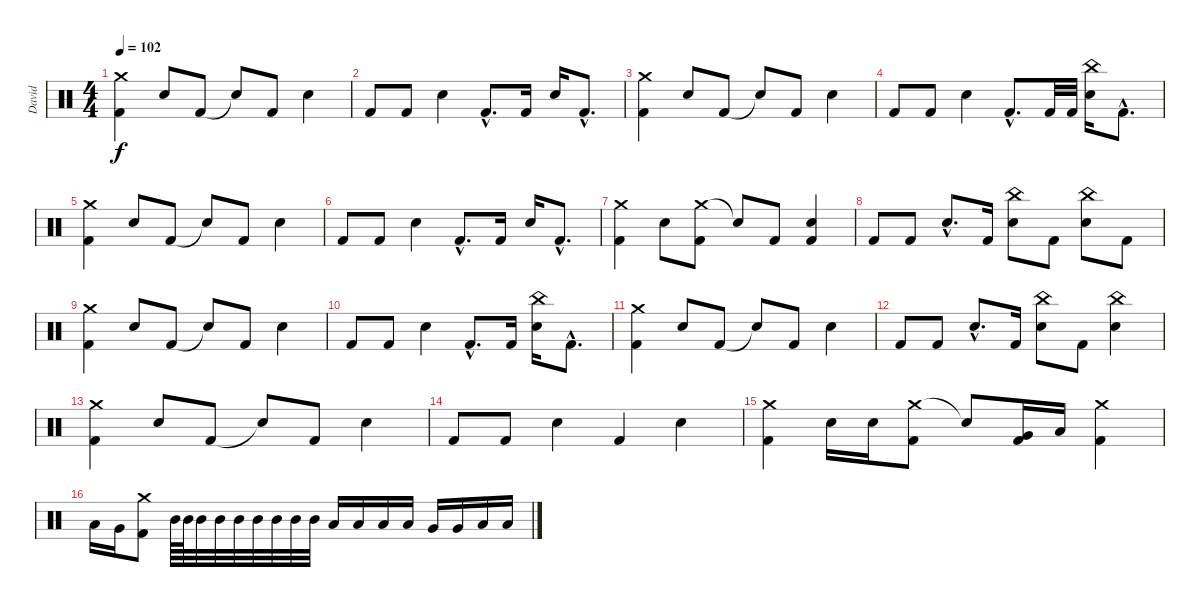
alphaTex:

\track ("David" "David") {instrument percussion}
\staff {score}
\articulation defaults
\ts (4 4)
\tempo 102
\clef neutral
\ks c
("Crash medium (hit)" "Kick (hit) 2").4{dy f} "Snare (hit) 2".8 "Kick (hit) 2".8 "Snare (hit)"{t}.8 "Kick (hit) 2".8 "Snare (hit) 2".4 |
"Kick (hit) 2".8 "Kick (hit) 2".8 "Snare (hit) 2".4 "Kick (hit) 2"{hac}.8{d} "Kick (hit) 2".16 "Snare (hit) 2".16 "Kick (hit) 2"{hac}.8{d} |
("Crash medium (hit)" "Kick (hit) 2").4 "Snare (hit) 2".8 "Kick (hit) 2".8 "Snare (hit)"{t}.8 "Kick (hit) 2".8 "Snare (hit) 2".4 |
"Kick (hit) 2".8 "Kick (hit) 2".8 "Snare (hit) 2".4 "Kick (hit) 2"{hac}.8{d} "Kick (hit) 2".32 "Kick (hit) 2".32 ("China (hit)" "Snare (hit) 2").16 "Kick (hit) 2"{hac}.8{d} |
("Crash medium (hit)" "Kick (hit) 2").4 "Snare (hit) 2".8 "Kick (hit) 2".8 "Snare (hit)"{t}.8 "Kick (hit) 2".8 "Snare (hit) 2".4 |
"Kick (hit) 2".8 "Kick (hit) 2".8 "Snare (hit) 2".4 "Kick (hit) 2"{hac}.8{d} "Kick (hit) 2".16 "Snare (hit) 2".16 "Kick (hit) 2"{hac}.8{d} |
("Crash medium (hit)" "Kick (hit) 2").4 "Snare (hit) 2".8 ("Crash medium (hit)" "Kick (hit) 2").8 "Snare (hit)"{t}.8 "Kick (hit) 2".8 ("Snare (hit) 2" "Kick (hit) 2").4 |
"Kick (hit) 2".8 "Kick (hit) 2".8 "Snare (hit) 2"{hac}.8{d} "Kick (hit) 2".16 ("China (hit)" "Snare (hit) 2").8 "Kick (hit) 2".8 ("China (hit)" "Snare (hit) 2").8 "Kick (hit) 2".8 |
("Crash medium (hit)" "Kick (hit) 2").4 "Snare (hit) 2".8 "Kick (hit) 2".8 "Snare (hit)"{t}.8 "Kick (hit) 2".8 "Snare (hit) 2".4 |
"Kick (hit) 2".8 "Kick (hit) 2".8 "Snare (hit) 2".4 "Kick (hit) 2"{hac}.8{d} "Kick (hit) 2".16 ("China (hit)" "Snare (hit) 2").16 "Kick (hit) 2"{hac}.8{d} |
("Crash medium (hit)" "Kick (hit) 2").4 "Snare (hit) 2".8 "Kick (hit) 2".8 "Snare (hit)"{t}.8 "Kick (hit) 2".8 "Snare (hit) 2".4 |
"Kick (hit) 2".8 "Kick (hit) 2".8 "Snare (hit) 2"{hac}.8{d} "Kick (hit) 2".16 ("China (hit)" "Snare (hit) 2").8 "Kick (hit) 2".8 ("China (hit)" "Snare (hit) 2").4 |
("Crash medium (hit)" "Kick (hit) 2").4 "Snare (hit) 2".8 "Kick (hit) 2".8 "Snare (hit)"{t}.8 "Kick (hit) 2".8 "Snare (hit) 2".4 |
"Kick (hit) 2".8 "Kick (hit) 2".8 "Snare (hit) 2".4 "Kick (hit) 2".4 "Snare (hit) 2".4 |
("Crash medium (hit)" "Kick (hit) 2").4 "Snare (hit) 2".16 "Snare (hit) 2".16 ("Crash medium (hit)" "Kick (hit) 2").8 "Snare (hit)"{t}.8 ("Very Low Tom (hit)" "Kick (hit) 2").16 "Low Tom (hit)".16 ("Crash medium (hit)" "Kick (hit) 2").4 |
"Low Floor Tom (hit)".16 "Very Low Tom (hit)".16 ("Crash medium (hit)" "Kick (hit) 2").8 "Mid Tom (hit)".64 "Mid Tom (hit)".64 "Mid Tom (hit)".32 "Mid Tom (hit)".32 "Mid Tom (hit)".32 "Mid Tom (hit)".32 "Mid Tom (hit)".32 "Mid Tom (hit)".32 "Mid Tom (hit)".32 "Low Tom (hit)".16 "Low Tom (hit)".16 "Low Tom (hit)".16 "Low Tom (hit)".16 "Very Low Tom (hit)".16 "Very Low Tom (hit)".16 "Low Floor Tom (hit)".16 "Low Floor Tom (hit)".16
